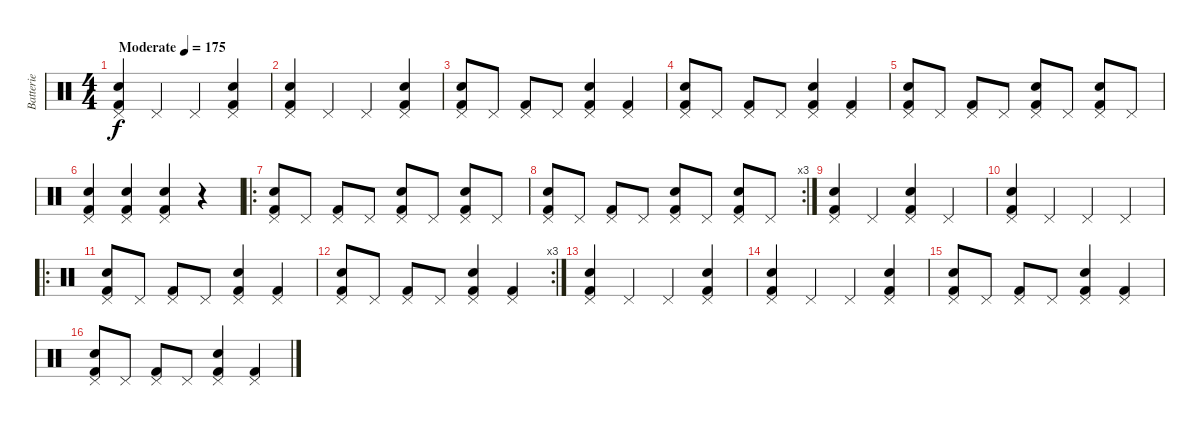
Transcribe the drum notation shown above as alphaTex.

\track ("Batterie" "Batterie") {instrument percussion}
\staff {score}
\articulation defaults
\ts (4 4)
\tempo (175 "Moderate")
\clef neutral
\ks c
("Pedal Hi-Hat (hit)" "Electric Snare (hit)" "Kick (hit) 2").4{dy f} "Pedal Hi-Hat (hit)".4 "Pedal Hi-Hat (hit)".4 ("Pedal Hi-Hat (hit)" "Electric Snare (hit)" "Kick (hit) 2").4 |
("Pedal Hi-Hat (hit)" "Electric Snare (hit)" "Kick (hit) 2").4 "Pedal Hi-Hat (hit)".4 "Pedal Hi-Hat (hit)".4 ("Pedal Hi-Hat (hit)" "Electric Snare (hit)" "Kick (hit) 2").4 |
("Pedal Hi-Hat (hit)" "Electric Snare (hit)" "Kick (hit) 2").8 "Pedal Hi-Hat (hit)".8 ("Pedal Hi-Hat (hit)" "Kick (hit) 2").8 "Pedal Hi-Hat (hit)".8 ("Pedal Hi-Hat (hit)" "Electric Snare (hit)" "Kick (hit) 2").4 ("Pedal Hi-Hat (hit)" "Kick (hit) 2").4 |
("Pedal Hi-Hat (hit)" "Electric Snare (hit)" "Kick (hit) 2").8 "Pedal Hi-Hat (hit)".8 ("Pedal Hi-Hat (hit)" "Kick (hit) 2").8 "Pedal Hi-Hat (hit)".8 ("Pedal Hi-Hat (hit)" "Electric Snare (hit)" "Kick (hit) 2").4 ("Pedal Hi-Hat (hit)" "Kick (hit) 2").4 |
("Pedal Hi-Hat (hit)" "Electric Snare (hit)" "Kick (hit) 2").8 "Pedal Hi-Hat (hit)".8 ("Pedal Hi-Hat (hit)" "Kick (hit) 2").8 "Pedal Hi-Hat (hit)".8 ("Pedal Hi-Hat (hit)" "Electric Snare (hit)" "Kick (hit) 2").8 "Pedal Hi-Hat (hit)".8 ("Pedal Hi-Hat (hit)" "Electric Snare (hit)" "Kick (hit) 2").8 "Pedal Hi-Hat (hit)".8 |
("Pedal Hi-Hat (hit)" "Electric Snare (hit)" "Kick (hit) 2").4 ("Pedal Hi-Hat (hit)" "Electric Snare (hit)" "Kick (hit) 2").4 ("Pedal Hi-Hat (hit)" "Electric Snare (hit)" "Kick (hit) 2").4 r.4 |
\ro
("Pedal Hi-Hat (hit)" "Electric Snare (hit)" "Kick (hit) 2").8 "Pedal Hi-Hat (hit)".8 ("Pedal Hi-Hat (hit)" "Kick (hit) 2").8 "Pedal Hi-Hat (hit)".8 ("Pedal Hi-Hat (hit)" "Electric Snare (hit)" "Kick (hit) 2").8 "Pedal Hi-Hat (hit)".8 ("Pedal Hi-Hat (hit)" "Electric Snare (hit)" "Kick (hit) 2").8 "Pedal Hi-Hat (hit)".8 |
\rc 3
("Pedal Hi-Hat (hit)" "Electric Snare (hit)" "Kick (hit) 2").8 "Pedal Hi-Hat (hit)".8 ("Pedal Hi-Hat (hit)" "Kick (hit) 2").8 "Pedal Hi-Hat (hit)".8 ("Pedal Hi-Hat (hit)" "Electric Snare (hit)" "Kick (hit) 2").8 "Pedal Hi-Hat (hit)".8 ("Pedal Hi-Hat (hit)" "Electric Snare (hit)" "Kick (hit) 2").8 "Pedal Hi-Hat (hit)".8 |
("Pedal Hi-Hat (hit)" "Electric Snare (hit)" "Kick (hit) 2").4 "Pedal Hi-Hat (hit)".4 ("Pedal Hi-Hat (hit)" "Electric Snare (hit)" "Kick (hit) 2").4 "Pedal Hi-Hat (hit)".4 |
("Pedal Hi-Hat (hit)" "Electric Snare (hit)" "Kick (hit) 2").4 "Pedal Hi-Hat (hit)".4 "Pedal Hi-Hat (hit)".4 "Pedal Hi-Hat (hit)".4 |
\ro
("Pedal Hi-Hat (hit)" "Electric Snare (hit)" "Kick (hit) 2").8 "Pedal Hi-Hat (hit)".8 ("Pedal Hi-Hat (hit)" "Kick (hit) 2").8 "Pedal Hi-Hat (hit)".8 ("Pedal Hi-Hat (hit)" "Electric Snare (hit)" "Kick (hit) 2").4 ("Pedal Hi-Hat (hit)" "Kick (hit) 2").4 |
\rc 3
("Pedal Hi-Hat (hit)" "Electric Snare (hit)" "Kick (hit) 2").8 "Pedal Hi-Hat (hit)".8 ("Pedal Hi-Hat (hit)" "Kick (hit) 2").8 "Pedal Hi-Hat (hit)".8 ("Pedal Hi-Hat (hit)" "Electric Snare (hit)" "Kick (hit) 2").4 ("Pedal Hi-Hat (hit)" "Kick (hit) 2").4 |
("Pedal Hi-Hat (hit)" "Electric Snare (hit)" "Kick (hit) 2").4 "Pedal Hi-Hat (hit)".4 "Pedal Hi-Hat (hit)".4 ("Pedal Hi-Hat (hit)" "Electric Snare (hit)" "Kick (hit) 2").4 |
("Pedal Hi-Hat (hit)" "Electric Snare (hit)" "Kick (hit) 2").4 "Pedal Hi-Hat (hit)".4 "Pedal Hi-Hat (hit)".4 ("Pedal Hi-Hat (hit)" "Electric Snare (hit)" "Kick (hit) 2").4 |
("Pedal Hi-Hat (hit)" "Electric Snare (hit)" "Kick (hit) 2").8 "Pedal Hi-Hat (hit)".8 ("Pedal Hi-Hat (hit)" "Kick (hit) 2").8 "Pedal Hi-Hat (hit)".8 ("Pedal Hi-Hat (hit)" "Electric Snare (hit)" "Kick (hit) 2").4 ("Pedal Hi-Hat (hit)" "Kick (hit) 2").4 |
("Pedal Hi-Hat (hit)" "Electric Snare (hit)" "Kick (hit) 2").8 "Pedal Hi-Hat (hit)".8 ("Pedal Hi-Hat (hit)" "Kick (hit) 2").8 "Pedal Hi-Hat (hit)".8 ("Pedal Hi-Hat (hit)" "Electric Snare (hit)" "Kick (hit) 2").4 ("Pedal Hi-Hat (hit)" "Kick (hit) 2").4
